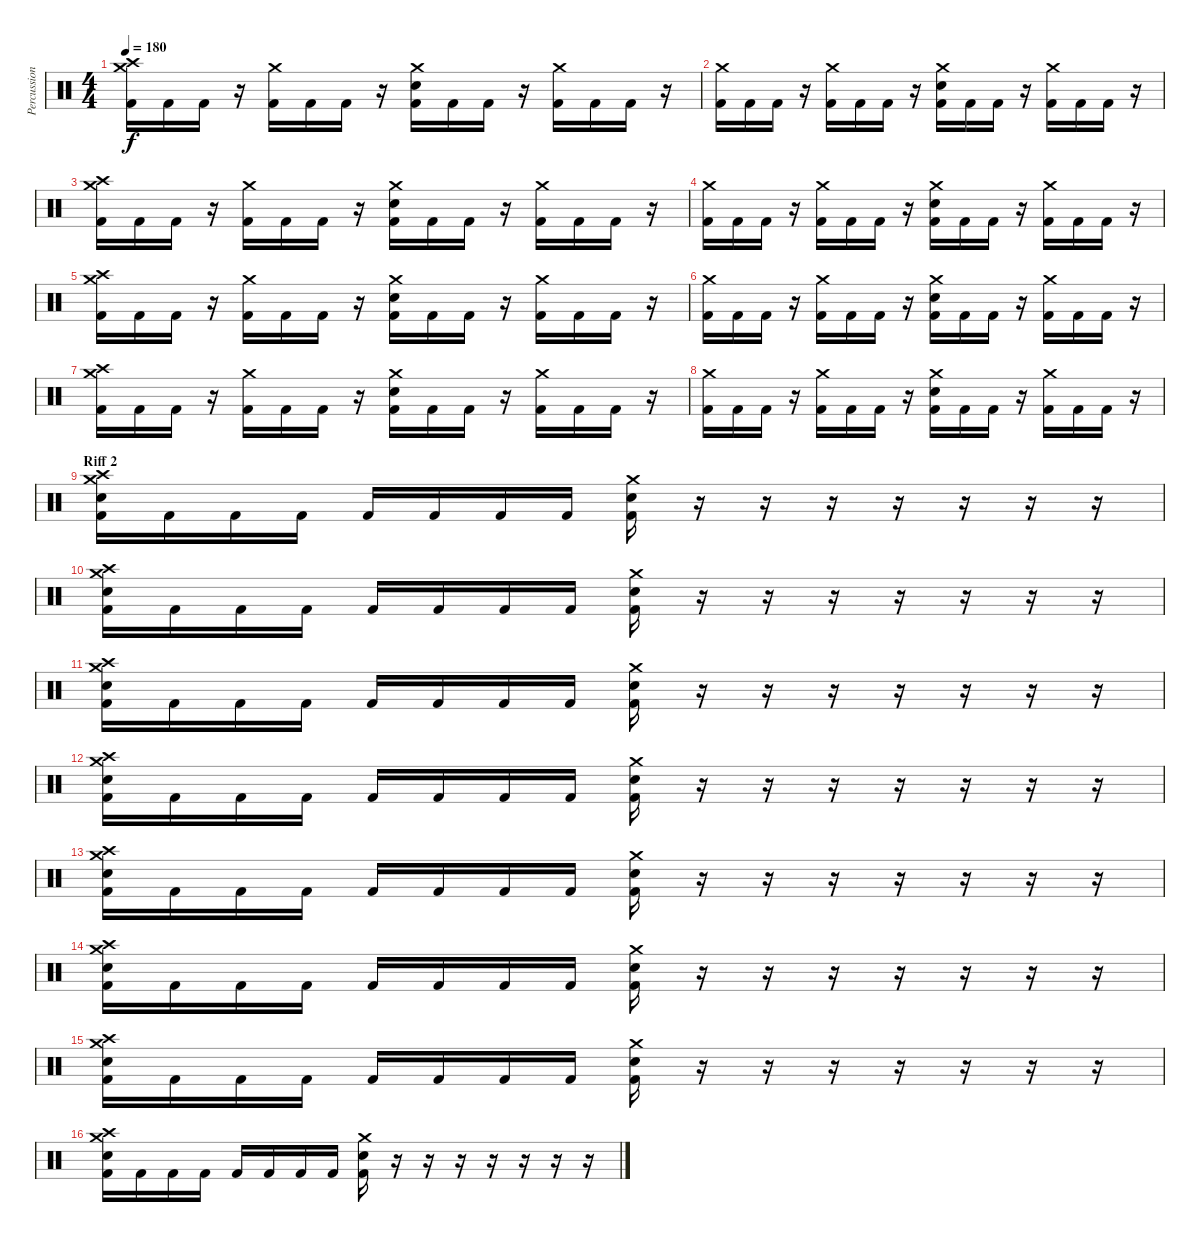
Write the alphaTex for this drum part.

\track ("Percussion" "Percussion") {instrument percussion}
\staff {score}
\articulation defaults
\ts (4 4)
\tempo 180
\clef neutral
\ks c
("Crash medium (hit)" "Crash high (hit)" "Kick (hit) 2").16{dy f} "Kick (hit) 2".16 "Kick (hit) 2".16 r.16 ("Crash medium (hit)" "Kick (hit) 2").16 "Kick (hit) 2".16 "Kick (hit) 2".16 r.16 ("Crash medium (hit)" "Electric Snare (hit)" "Kick (hit) 2").16 "Kick (hit) 2".16 "Kick (hit) 2".16 r.16 ("Crash medium (hit)" "Kick (hit) 2").16 "Kick (hit) 2".16 "Kick (hit) 2".16 r.16 |
("Crash medium (hit)" "Kick (hit) 2").16 "Kick (hit) 2".16 "Kick (hit) 2".16 r.16 ("Crash medium (hit)" "Kick (hit) 2").16 "Kick (hit) 2".16 "Kick (hit) 2".16 r.16 ("Crash medium (hit)" "Electric Snare (hit)" "Kick (hit) 2").16 "Kick (hit) 2".16 "Kick (hit) 2".16 r.16 ("Crash medium (hit)" "Kick (hit) 2").16 "Kick (hit) 2".16 "Kick (hit) 2".16 r.16 |
("Crash medium (hit)" "Crash high (hit)" "Kick (hit) 2").16 "Kick (hit) 2".16 "Kick (hit) 2".16 r.16 ("Crash medium (hit)" "Kick (hit) 2").16 "Kick (hit) 2".16 "Kick (hit) 2".16 r.16 ("Crash medium (hit)" "Electric Snare (hit)" "Kick (hit) 2").16 "Kick (hit) 2".16 "Kick (hit) 2".16 r.16 ("Crash medium (hit)" "Kick (hit) 2").16 "Kick (hit) 2".16 "Kick (hit) 2".16 r.16 |
("Crash medium (hit)" "Kick (hit) 2").16 "Kick (hit) 2".16 "Kick (hit) 2".16 r.16 ("Crash medium (hit)" "Kick (hit) 2").16 "Kick (hit) 2".16 "Kick (hit) 2".16 r.16 ("Crash medium (hit)" "Electric Snare (hit)" "Kick (hit) 2").16 "Kick (hit) 2".16 "Kick (hit) 2".16 r.16 ("Crash medium (hit)" "Kick (hit) 2").16 "Kick (hit) 2".16 "Kick (hit) 2".16 r.16 |
("Crash medium (hit)" "Crash high (hit)" "Kick (hit) 2").16 "Kick (hit) 2".16 "Kick (hit) 2".16 r.16 ("Crash medium (hit)" "Kick (hit) 2").16 "Kick (hit) 2".16 "Kick (hit) 2".16 r.16 ("Crash medium (hit)" "Electric Snare (hit)" "Kick (hit) 2").16 "Kick (hit) 2".16 "Kick (hit) 2".16 r.16 ("Crash medium (hit)" "Kick (hit) 2").16 "Kick (hit) 2".16 "Kick (hit) 2".16 r.16 |
("Crash medium (hit)" "Kick (hit) 2").16 "Kick (hit) 2".16 "Kick (hit) 2".16 r.16 ("Crash medium (hit)" "Kick (hit) 2").16 "Kick (hit) 2".16 "Kick (hit) 2".16 r.16 ("Crash medium (hit)" "Electric Snare (hit)" "Kick (hit) 2").16 "Kick (hit) 2".16 "Kick (hit) 2".16 r.16 ("Crash medium (hit)" "Kick (hit) 2").16 "Kick (hit) 2".16 "Kick (hit) 2".16 r.16 |
("Crash medium (hit)" "Crash high (hit)" "Kick (hit) 2").16 "Kick (hit) 2".16 "Kick (hit) 2".16 r.16 ("Crash medium (hit)" "Kick (hit) 2").16 "Kick (hit) 2".16 "Kick (hit) 2".16 r.16 ("Crash medium (hit)" "Electric Snare (hit)" "Kick (hit) 2").16 "Kick (hit) 2".16 "Kick (hit) 2".16 r.16 ("Crash medium (hit)" "Kick (hit) 2").16 "Kick (hit) 2".16 "Kick (hit) 2".16 r.16 |
("Crash medium (hit)" "Kick (hit) 2").16 "Kick (hit) 2".16 "Kick (hit) 2".16 r.16 ("Crash medium (hit)" "Kick (hit) 2").16 "Kick (hit) 2".16 "Kick (hit) 2".16 r.16 ("Crash medium (hit)" "Electric Snare (hit)" "Kick (hit) 2").16 "Kick (hit) 2".16 "Kick (hit) 2".16 r.16 ("Crash medium (hit)" "Kick (hit) 2").16 "Kick (hit) 2".16 "Kick (hit) 2".16 r.16 |
\section ("" "Riff 2")
("Crash medium (hit)" "Crash high (hit)" "Electric Snare (hit)" "Kick (hit) 2").16 "Kick (hit) 2".16 "Kick (hit) 2".16 "Kick (hit) 2".16 "Kick (hit) 2".16 "Kick (hit) 2".16 "Kick (hit) 2".16 "Kick (hit) 2".16 ("Crash medium (hit)" "Electric Snare (hit)" "Kick (hit) 2").16 r.16 r.16 r.16 r.16 r.16 r.16 r.16 |
("Crash medium (hit)" "Crash high (hit)" "Electric Snare (hit)" "Kick (hit) 2").16 "Kick (hit) 2".16 "Kick (hit) 2".16 "Kick (hit) 2".16 "Kick (hit) 2".16 "Kick (hit) 2".16 "Kick (hit) 2".16 "Kick (hit) 2".16 ("Crash medium (hit)" "Electric Snare (hit)" "Kick (hit) 2").16 r.16 r.16 r.16 r.16 r.16 r.16 r.16 |
("Crash medium (hit)" "Crash high (hit)" "Electric Snare (hit)" "Kick (hit) 2").16 "Kick (hit) 2".16 "Kick (hit) 2".16 "Kick (hit) 2".16 "Kick (hit) 2".16 "Kick (hit) 2".16 "Kick (hit) 2".16 "Kick (hit) 2".16 ("Crash medium (hit)" "Electric Snare (hit)" "Kick (hit) 2").16 r.16 r.16 r.16 r.16 r.16 r.16 r.16 |
("Crash medium (hit)" "Crash high (hit)" "Electric Snare (hit)" "Kick (hit) 2").16 "Kick (hit) 2".16 "Kick (hit) 2".16 "Kick (hit) 2".16 "Kick (hit) 2".16 "Kick (hit) 2".16 "Kick (hit) 2".16 "Kick (hit) 2".16 ("Crash medium (hit)" "Electric Snare (hit)" "Kick (hit) 2").16 r.16 r.16 r.16 r.16 r.16 r.16 r.16 |
("Crash medium (hit)" "Crash high (hit)" "Electric Snare (hit)" "Kick (hit) 2").16 "Kick (hit) 2".16 "Kick (hit) 2".16 "Kick (hit) 2".16 "Kick (hit) 2".16 "Kick (hit) 2".16 "Kick (hit) 2".16 "Kick (hit) 2".16 ("Crash medium (hit)" "Electric Snare (hit)" "Kick (hit) 2").16 r.16 r.16 r.16 r.16 r.16 r.16 r.16 |
("Crash medium (hit)" "Crash high (hit)" "Electric Snare (hit)" "Kick (hit) 2").16 "Kick (hit) 2".16 "Kick (hit) 2".16 "Kick (hit) 2".16 "Kick (hit) 2".16 "Kick (hit) 2".16 "Kick (hit) 2".16 "Kick (hit) 2".16 ("Crash medium (hit)" "Electric Snare (hit)" "Kick (hit) 2").16 r.16 r.16 r.16 r.16 r.16 r.16 r.16 |
("Crash medium (hit)" "Crash high (hit)" "Electric Snare (hit)" "Kick (hit) 2").16 "Kick (hit) 2".16 "Kick (hit) 2".16 "Kick (hit) 2".16 "Kick (hit) 2".16 "Kick (hit) 2".16 "Kick (hit) 2".16 "Kick (hit) 2".16 ("Crash medium (hit)" "Electric Snare (hit)" "Kick (hit) 2").16 r.16 r.16 r.16 r.16 r.16 r.16 r.16 |
("Crash medium (hit)" "Crash high (hit)" "Electric Snare (hit)" "Kick (hit) 2").16 "Kick (hit) 2".16 "Kick (hit) 2".16 "Kick (hit) 2".16 "Kick (hit) 2".16 "Kick (hit) 2".16 "Kick (hit) 2".16 "Kick (hit) 2".16 ("Crash medium (hit)" "Electric Snare (hit)" "Kick (hit) 2").16 r.16 r.16 r.16 r.16 r.16 r.16 r.16
